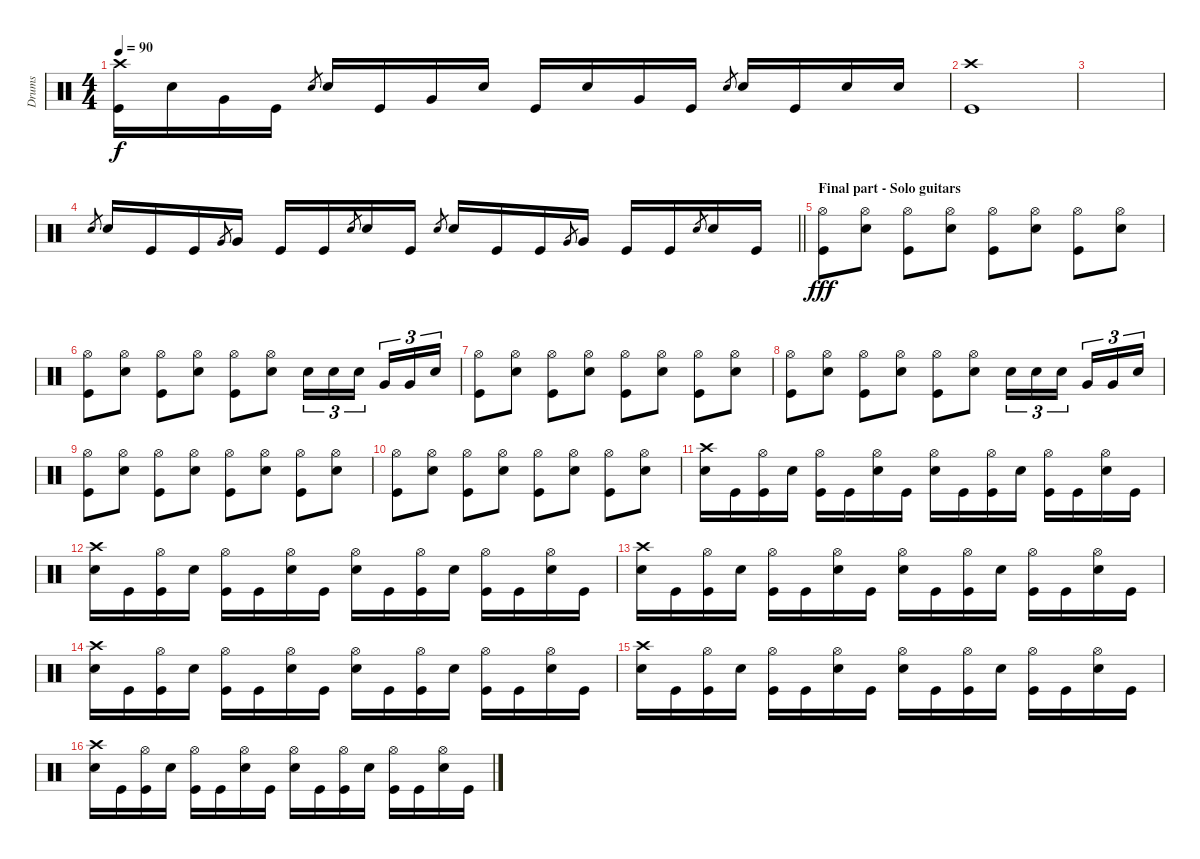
\track ("Drums" "Drums") {instrument percussion}
\staff {score}
\articulation defaults
\ts (4 4)
\tempo 90
\clef neutral
\ks c
("Crash high (hit)" "Kick (hit)").16{dy f} "Snare (hit) 2".16 "Very Low Tom (hit)".16 "Kick (hit)".16 "Snare (hit) 2".8{gr} "Snare (hit) 2".16 "Kick (hit)".16 "Very Low Tom (hit)".16 "Snare (hit) 2".16 "Kick (hit)".16 "Snare (hit) 2".16 "Very Low Tom (hit)".16 "Kick (hit)".16 "Snare (hit) 2".8{gr} "Snare (hit) 2".16 "Kick (hit)".16 "Snare (hit) 2".16 "Snare (hit) 2".16 |
("Crash high (hit)" "Kick (hit)").1 |
|
\barLineRight lightlight "Snare (hit) 2".8{gr} "Snare (hit) 2".16 "Kick (hit)".16 "Kick (hit)".16 "Very Low Tom (hit)".8{gr} "Very Low Tom (hit)".16 "Kick (hit)".16 "Kick (hit)".16 "Snare (hit) 2".8{gr} "Snare (hit) 2".16 "Kick (hit)".16 "Snare (hit) 2".8{gr} "Snare (hit) 2".16 "Kick (hit)".16 "Kick (hit)".16 "Very Low Tom (hit)".8{gr} "Very Low Tom (hit)".16 "Kick (hit)".16 "Kick (hit)".16 "Snare (hit) 2".8{gr} "Snare (hit) 2".16 "Kick (hit)".16
|
\section ("" "Final part - Solo guitars")
("Hi-Hat (open)" "Kick (hit)").8{dy fff} ("Snare (hit) 2" "Hi-Hat (open)").8 ("Hi-Hat (open)" "Kick (hit)").8 ("Snare (hit) 2" "Hi-Hat (open)").8 ("Kick (hit)" "Hi-Hat (open)").8 ("Snare (hit) 2" "Hi-Hat (open)").8 ("Kick (hit)" "Hi-Hat (open)").8 ("Snare (hit) 2" "Hi-Hat (open)").8 |
("Hi-Hat (open)" "Kick (hit)").8 ("Snare (hit) 2" "Hi-Hat (open)").8 ("Hi-Hat (open)" "Kick (hit)").8 ("Snare (hit) 2" "Hi-Hat (open)").8 ("Kick (hit)" "Hi-Hat (open)").8 ("Snare (hit) 2" "Hi-Hat (open)").8 "Snare (hit) 2".16{tu (3 2)} "Snare (hit) 2".16{tu (3 2)} "Snare (hit) 2".16{tu (3 2)} "Very Low Tom (hit)".16{tu (3 2)} "Very Low Tom (hit)".16{tu (3 2)} "Snare (hit) 2".16{tu (3 2)} |
("Hi-Hat (open)" "Kick (hit)").8 ("Snare (hit) 2" "Hi-Hat (open)").8 ("Hi-Hat (open)" "Kick (hit)").8 ("Snare (hit) 2" "Hi-Hat (open)").8 ("Kick (hit)" "Hi-Hat (open)").8 ("Snare (hit) 2" "Hi-Hat (open)").8 ("Kick (hit)" "Hi-Hat (open)").8 ("Snare (hit) 2" "Hi-Hat (open)").8 |
("Hi-Hat (open)" "Kick (hit)").8 ("Snare (hit) 2" "Hi-Hat (open)").8 ("Hi-Hat (open)" "Kick (hit)").8 ("Snare (hit) 2" "Hi-Hat (open)").8 ("Kick (hit)" "Hi-Hat (open)").8 ("Snare (hit) 2" "Hi-Hat (open)").8 "Snare (hit) 2".16{tu (3 2)} "Snare (hit) 2".16{tu (3 2)} "Snare (hit) 2".16{tu (3 2)} "Very Low Tom (hit)".16{tu (3 2)} "Very Low Tom (hit)".16{tu (3 2)} "Snare (hit) 2".16{tu (3 2)} |
("Hi-Hat (open)" "Kick (hit)").8 ("Snare (hit) 2" "Hi-Hat (open)").8 ("Hi-Hat (open)" "Kick (hit)").8 ("Snare (hit) 2" "Hi-Hat (open)").8 ("Kick (hit)" "Hi-Hat (open)").8 ("Snare (hit) 2" "Hi-Hat (open)").8 ("Kick (hit)" "Hi-Hat (open)").8 ("Snare (hit) 2" "Hi-Hat (open)").8 |
("Hi-Hat (open)" "Kick (hit)").8 ("Snare (hit) 2" "Hi-Hat (open)").8 ("Hi-Hat (open)" "Kick (hit)").8 ("Snare (hit) 2" "Hi-Hat (open)").8 ("Kick (hit)" "Hi-Hat (open)").8 ("Snare (hit) 2" "Hi-Hat (open)").8 ("Kick (hit)" "Hi-Hat (open)").8 ("Snare (hit) 2" "Hi-Hat (open)").8 |
("Crash high (hit)" "Snare (hit) 2").16 "Kick (hit)".16 ("Kick (hit)" "Hi-Hat (open)").16 "Snare (hit) 2".16 ("Kick (hit)" "Hi-Hat (open)").16 "Kick (hit)".16 ("Snare (hit) 2" "Hi-Hat (open)").16 "Kick (hit)".16 ("Hi-Hat (open)" "Snare (hit) 2").16 "Kick (hit)".16 ("Kick (hit)" "Hi-Hat (open)").16 "Snare (hit) 2".16 ("Kick (hit)" "Hi-Hat (open)").16 "Kick (hit)".16 ("Snare (hit) 2" "Hi-Hat (open)").16 "Kick (hit)".16 |
("Crash high (hit)" "Snare (hit) 2").16 "Kick (hit)".16 ("Kick (hit)" "Hi-Hat (open)").16 "Snare (hit) 2".16 ("Kick (hit)" "Hi-Hat (open)").16 "Kick (hit)".16 ("Snare (hit) 2" "Hi-Hat (open)").16 "Kick (hit)".16 ("Hi-Hat (open)" "Snare (hit) 2").16 "Kick (hit)".16 ("Kick (hit)" "Hi-Hat (open)").16 "Snare (hit) 2".16 ("Kick (hit)" "Hi-Hat (open)").16 "Kick (hit)".16 ("Snare (hit) 2" "Hi-Hat (open)").16 "Kick (hit)".16 |
("Crash high (hit)" "Snare (hit) 2").16 "Kick (hit)".16 ("Kick (hit)" "Hi-Hat (open)").16 "Snare (hit) 2".16 ("Kick (hit)" "Hi-Hat (open)").16 "Kick (hit)".16 ("Snare (hit) 2" "Hi-Hat (open)").16 "Kick (hit)".16 ("Hi-Hat (open)" "Snare (hit) 2").16 "Kick (hit)".16 ("Kick (hit)" "Hi-Hat (open)").16 "Snare (hit) 2".16 ("Kick (hit)" "Hi-Hat (open)").16 "Kick (hit)".16 ("Snare (hit) 2" "Hi-Hat (open)").16 "Kick (hit)".16 |
("Crash high (hit)" "Snare (hit) 2").16 "Kick (hit)".16 ("Kick (hit)" "Hi-Hat (open)").16 "Snare (hit) 2".16 ("Kick (hit)" "Hi-Hat (open)").16 "Kick (hit)".16 ("Snare (hit) 2" "Hi-Hat (open)").16 "Kick (hit)".16 ("Hi-Hat (open)" "Snare (hit) 2").16 "Kick (hit)".16 ("Kick (hit)" "Hi-Hat (open)").16 "Snare (hit) 2".16 ("Kick (hit)" "Hi-Hat (open)").16 "Kick (hit)".16 ("Snare (hit) 2" "Hi-Hat (open)").16 "Kick (hit)".16 |
("Crash high (hit)" "Snare (hit) 2").16 "Kick (hit)".16 ("Kick (hit)" "Hi-Hat (open)").16 "Snare (hit) 2".16 ("Kick (hit)" "Hi-Hat (open)").16 "Kick (hit)".16 ("Snare (hit) 2" "Hi-Hat (open)").16 "Kick (hit)".16 ("Hi-Hat (open)" "Snare (hit) 2").16 "Kick (hit)".16 ("Kick (hit)" "Hi-Hat (open)").16 "Snare (hit) 2".16 ("Kick (hit)" "Hi-Hat (open)").16 "Kick (hit)".16 ("Snare (hit) 2" "Hi-Hat (open)").16 "Kick (hit)".16 |
("Crash high (hit)" "Snare (hit) 2").16 "Kick (hit)".16 ("Kick (hit)" "Hi-Hat (open)").16 "Snare (hit) 2".16 ("Kick (hit)" "Hi-Hat (open)").16 "Kick (hit)".16 ("Snare (hit) 2" "Hi-Hat (open)").16 "Kick (hit)".16 ("Hi-Hat (open)" "Snare (hit) 2").16 "Kick (hit)".16 ("Kick (hit)" "Hi-Hat (open)").16 "Snare (hit) 2".16 ("Kick (hit)" "Hi-Hat (open)").16 "Kick (hit)".16 ("Snare (hit) 2" "Hi-Hat (open)").16 "Kick (hit)".16
